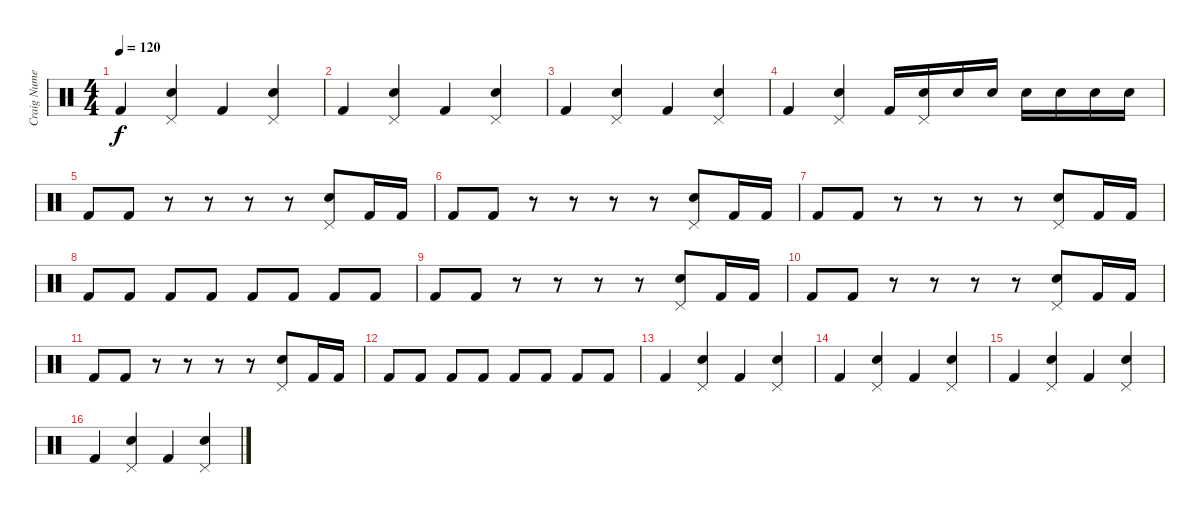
\track ("Craig Numenbacher - Drums" "Craig Nume") {instrument percussion}
\staff {score}
\articulation defaults
\ts (4 4)
\tempo 120
\clef neutral
\ks c "Kick (hit) 2".4{dy f}
("Pedal Hi-Hat (hit)" "Snare (hit) 2").4 "Kick (hit) 2".4 ("Pedal Hi-Hat (hit)" "Snare (hit) 2").4 |
"Kick (hit) 2".4 ("Pedal Hi-Hat (hit)" "Snare (hit) 2").4 "Kick (hit) 2".4 ("Pedal Hi-Hat (hit)" "Snare (hit) 2").4 |
"Kick (hit) 2".4 ("Pedal Hi-Hat (hit)" "Snare (hit) 2").4 "Kick (hit) 2".4 ("Pedal Hi-Hat (hit)" "Snare (hit) 2").4 |
"Kick (hit) 2".4 ("Pedal Hi-Hat (hit)" "Snare (hit) 2").4 "Kick (hit) 2".16 ("Pedal Hi-Hat (hit)" "Snare (hit) 2").16 "Snare (hit) 2".16 "Snare (hit) 2".16 "Snare (hit) 2".16 "Snare (hit) 2".16 "Snare (hit) 2".16 "Snare (hit) 2".16 |
"Kick (hit) 2".8 "Kick (hit) 2".8 r.8 r.8 r.8 r.8 ("Pedal Hi-Hat (hit)" "Snare (hit) 2").8 "Kick (hit) 2".16 "Kick (hit) 2".16 |
"Kick (hit) 2".8 "Kick (hit) 2".8 r.8 r.8 r.8 r.8 ("Pedal Hi-Hat (hit)" "Snare (hit) 2").8 "Kick (hit) 2".16 "Kick (hit) 2".16 |
"Kick (hit) 2".8 "Kick (hit) 2".8 r.8 r.8 r.8 r.8 ("Pedal Hi-Hat (hit)" "Snare (hit) 2").8 "Kick (hit) 2".16 "Kick (hit) 2".16 |
"Kick (hit) 2".8 "Kick (hit) 2".8 "Kick (hit) 2".8 "Kick (hit) 2".8 "Kick (hit) 2".8 "Kick (hit) 2".8 "Kick (hit) 2".8 "Kick (hit) 2".8 |
"Kick (hit) 2".8 "Kick (hit) 2".8 r.8 r.8 r.8 r.8 ("Pedal Hi-Hat (hit)" "Snare (hit) 2").8 "Kick (hit) 2".16 "Kick (hit) 2".16 |
"Kick (hit) 2".8 "Kick (hit) 2".8 r.8 r.8 r.8 r.8 ("Pedal Hi-Hat (hit)" "Snare (hit) 2").8 "Kick (hit) 2".16 "Kick (hit) 2".16 |
"Kick (hit) 2".8 "Kick (hit) 2".8 r.8 r.8 r.8 r.8 ("Pedal Hi-Hat (hit)" "Snare (hit) 2").8 "Kick (hit) 2".16 "Kick (hit) 2".16 |
"Kick (hit) 2".8 "Kick (hit) 2".8 "Kick (hit) 2".8 "Kick (hit) 2".8 "Kick (hit) 2".8 "Kick (hit) 2".8 "Kick (hit) 2".8 "Kick (hit) 2".8 |
"Kick (hit) 2".4 ("Pedal Hi-Hat (hit)" "Snare (hit) 2").4 "Kick (hit) 2".4 ("Pedal Hi-Hat (hit)" "Snare (hit) 2").4 |
"Kick (hit) 2".4 ("Pedal Hi-Hat (hit)" "Snare (hit) 2").4 "Kick (hit) 2".4 ("Pedal Hi-Hat (hit)" "Snare (hit) 2").4 |
"Kick (hit) 2".4 ("Pedal Hi-Hat (hit)" "Snare (hit) 2").4 "Kick (hit) 2".4 ("Pedal Hi-Hat (hit)" "Snare (hit) 2").4 |
"Kick (hit) 2".4 ("Pedal Hi-Hat (hit)" "Snare (hit) 2").4 "Kick (hit) 2".4 ("Pedal Hi-Hat (hit)" "Snare (hit) 2").4
